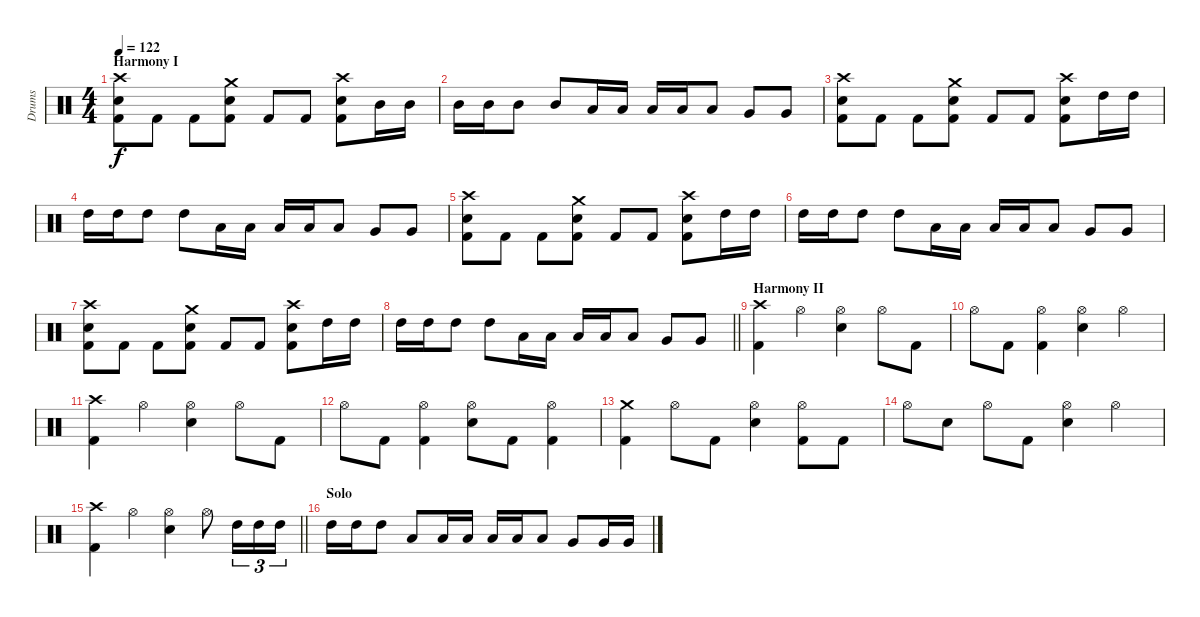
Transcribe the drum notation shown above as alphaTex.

\track ("Drums" "Drums") {instrument percussion}
\staff {score}
\articulation defaults
\ts (4 4)
\section ("" "Harmony I")
\tempo 122
\clef neutral
\ks c
("Crash high (hit)" "Electric Snare (hit)" "Kick (hit) 2").8{dy f} "Kick (hit) 2".8 "Kick (hit) 2".8 ("Crash medium (hit)" "Electric Snare (hit)" "Kick (hit) 2").8 "Kick (hit) 2".8 "Kick (hit) 2".8 ("Crash high (hit)" "Electric Snare (hit)" "Kick (hit) 2").8 "Mid Tom (hit)".16 "Mid Tom (hit)".16 |
"Mid Tom (hit)".16 "Mid Tom (hit)".16 "Mid Tom (hit)".8 "Mid Tom (hit)".8 "Low Tom (hit)".16 "Low Tom (hit)".16 "Low Tom (hit)".16 "Low Tom (hit)".16 "Low Tom (hit)".8 "Very Low Tom (hit)".8 "Very Low Tom (hit)".8 |
("Crash high (hit)" "Electric Snare (hit)" "Kick (hit) 2").8 "Kick (hit) 2".8 "Kick (hit) 2".8 ("Crash medium (hit)" "Electric Snare (hit)" "Kick (hit) 2").8 "Kick (hit) 2".8 "Kick (hit) 2".8 ("Crash high (hit)" "Electric Snare (hit)" "Kick (hit) 2").8 "High Tom (hit)".16 "High Tom (hit)".16 |
"High Tom (hit)".16 "High Tom (hit)".16 "High Tom (hit)".8 "High Tom (hit)".8 "Low Tom (hit)".16 "Low Tom (hit)".16 "Low Tom (hit)".16 "Low Tom (hit)".16 "Low Tom (hit)".8 "Very Low Tom (hit)".8 "Very Low Tom (hit)".8 |
("Crash high (hit)" "Electric Snare (hit)" "Kick (hit) 2").8 "Kick (hit) 2".8 "Kick (hit) 2".8 ("Crash medium (hit)" "Electric Snare (hit)" "Kick (hit) 2").8 "Kick (hit) 2".8 "Kick (hit) 2".8 ("Crash high (hit)" "Electric Snare (hit)" "Kick (hit) 2").8 "High Tom (hit)".16 "High Tom (hit)".16 |
"High Tom (hit)".16 "High Tom (hit)".16 "High Tom (hit)".8 "High Tom (hit)".8 "Low Tom (hit)".16 "Low Tom (hit)".16 "Low Tom (hit)".16 "Low Tom (hit)".16 "Low Tom (hit)".8 "Very Low Tom (hit)".8 "Very Low Tom (hit)".8 |
("Crash high (hit)" "Electric Snare (hit)" "Kick (hit) 2").8 "Kick (hit) 2".8 "Kick (hit) 2".8 ("Crash medium (hit)" "Electric Snare (hit)" "Kick (hit) 2").8 "Kick (hit) 2".8 "Kick (hit) 2".8 ("Crash high (hit)" "Electric Snare (hit)" "Kick (hit) 2").8 "High Tom (hit)".16 "High Tom (hit)".16 |
\barLineRight lightlight "High Tom (hit)".16 "High Tom (hit)".16 "High Tom (hit)".8 "High Tom (hit)".8 "Low Tom (hit)".16 "Low Tom (hit)".16 "Low Tom (hit)".16 "Low Tom (hit)".16 "Low Tom (hit)".8 "Very Low Tom (hit)".8 "Very Low Tom (hit)".8
|
\section ("" "Harmony II")
("Crash high (hit)" "Kick (hit) 2").4 "Hi-Hat (open)".4 ("Hi-Hat (open)" "Electric Snare (hit)").4 "Hi-Hat (open)".8 "Kick (hit) 2".8 |
"Hi-Hat (open)".8 "Kick (hit) 2".8 ("Hi-Hat (open)" "Kick (hit) 2").4 ("Hi-Hat (open)" "Electric Snare (hit)").4 "Hi-Hat (open)".4 |
("Crash high (hit)" "Kick (hit) 2").4 "Hi-Hat (open)".4 ("Hi-Hat (open)" "Electric Snare (hit)").4 "Hi-Hat (open)".8 "Kick (hit) 2".8 |
"Hi-Hat (open)".8 "Kick (hit) 2".8 ("Hi-Hat (open)" "Kick (hit) 2").4 ("Hi-Hat (open)" "Electric Snare (hit)").8 "Kick (hit) 2".8 ("Hi-Hat (open)" "Kick (hit) 2").4 |
("Crash medium (hit)" "Kick (hit) 2").4 "Hi-Hat (open)".8 "Kick (hit) 2".8 ("Hi-Hat (open)" "Electric Snare (hit)").4 ("Hi-Hat (open)" "Kick (hit) 2").8 "Kick (hit) 2".8 |
"Hi-Hat (open)".8 "Electric Snare (hit)".8 "Hi-Hat (open)".8 "Kick (hit) 2".8 ("Hi-Hat (open)" "Electric Snare (hit)").4 "Hi-Hat (open)".4 |
\barLineRight lightlight
("Crash high (hit)" "Kick (hit) 2").4 "Hi-Hat (open)".4 ("Hi-Hat (open)" "Electric Snare (hit)").4 "Hi-Hat (open)".8 "High Tom (hit)".16{tu (3 2)} "High Tom (hit)".16{tu (3 2)} "High Tom (hit)".16{tu (3 2)} |
\section ("" "Solo")
"High Tom (hit)".16 "High Tom (hit)".16 "High Tom (hit)".8 "Low Tom (hit)".8 "Low Tom (hit)".16 "Low Tom (hit)".16 "Low Tom (hit)".16 "Low Tom (hit)".16 "Low Tom (hit)".8 "Very Low Tom (hit)".8 "Very Low Tom (hit)".16 "Very Low Tom (hit)".16
